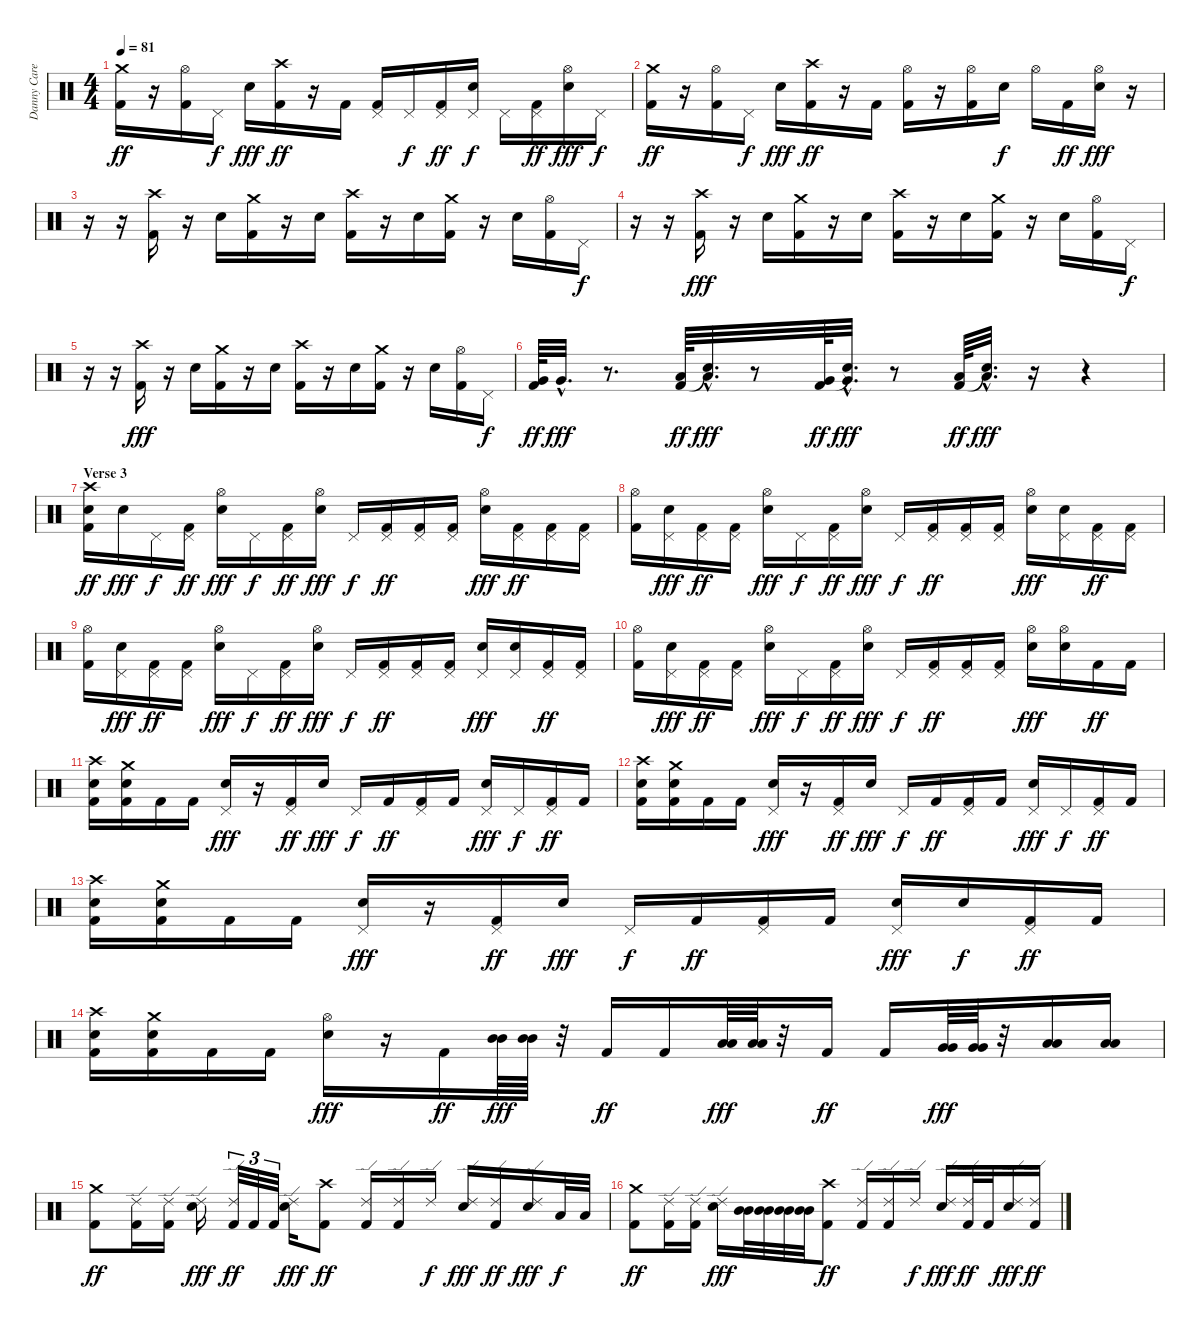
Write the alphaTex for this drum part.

\track ("Danny Carey" "Danny Care") {instrument percussion}
\staff {score}
\articulation defaults
\ts (4 4)
\tempo 81
\clef neutral
\ks c
("Crash medium (hit)" "Kick (hit) 2").16{dy ff} r.16 ("Hi-Hat (open)" "Kick (hit) 2").16 "Pedal Hi-Hat (hit)".16{dy f} "Electric Snare (hit)".16{dy fff} ("Crash high (hit)" "Kick (hit) 2").16{dy ff} r.16 "Kick (hit) 2".16 ("Pedal Hi-Hat (hit)" "Kick (hit) 2").16 "Pedal Hi-Hat (hit)".16{dy f} ("Pedal Hi-Hat (hit)" "Kick (hit) 2").16{dy ff} ("Pedal Hi-Hat (hit)" "Electric Snare (hit)").16{dy f} "Pedal Hi-Hat (hit)".16 ("Pedal Hi-Hat (hit)" "Kick (hit) 2").16{dy ff} ("Hi-Hat (open)" "Electric Snare (hit)").16{dy fff} "Pedal Hi-Hat (hit)".16{dy f} |
("Crash medium (hit)" "Kick (hit) 2").16{dy ff} r.16 ("Hi-Hat (open)" "Kick (hit) 2").16 "Pedal Hi-Hat (hit)".16{dy f} "Electric Snare (hit)".16{dy fff} ("Crash high (hit)" "Kick (hit) 2").16{dy ff} r.16 "Kick (hit) 2".16 ("Hi-Hat (open)" "Kick (hit) 2").16 r.16 ("Hi-Hat (open)" "Kick (hit) 2").16 "Electric Snare (hit)".16{dy f} "Hi-Hat (open)".16 "Kick (hit) 2".16{dy ff} ("Hi-Hat (open)" "Electric Snare (hit)").16{dy fff} r.16 |
r.16 r.16 ("Crash high (hit)" "Kick (hit) 2").16 r.16 "Electric Snare (hit)".16 ("Crash medium (hit)" "Kick (hit) 2").16 r.16 "Electric Snare (hit)".16 ("Crash high (hit)" "Kick (hit) 2").16 r.16 "Electric Snare (hit)".16 ("Crash medium (hit)" "Kick (hit) 2").16 r.16 "Electric Snare (hit)".16 ("Hi-Hat (open)" "Kick (hit) 2").16 "Pedal Hi-Hat (hit)".16{dy f} |
r.16 r.16 ("Crash high (hit)" "Kick (hit) 2").16{dy fff} r.16 "Electric Snare (hit)".16 ("Crash medium (hit)" "Kick (hit) 2").16 r.16 "Electric Snare (hit)".16 ("Crash high (hit)" "Kick (hit) 2").16 r.16 "Electric Snare (hit)".16 ("Crash medium (hit)" "Kick (hit) 2").16 r.16 "Electric Snare (hit)".16 ("Hi-Hat (open)" "Kick (hit) 2").16 "Pedal Hi-Hat (hit)".16{dy f} |
r.16 r.16 ("Crash high (hit)" "Kick (hit) 2").16{dy fff} r.16 "Electric Snare (hit)".16 ("Crash medium (hit)" "Kick (hit) 2").16 r.16 "Electric Snare (hit)".16 ("Crash high (hit)" "Kick (hit) 2").16 r.16 "Electric Snare (hit)".16 ("Crash medium (hit)" "Kick (hit) 2").16 r.16 "Electric Snare (hit)".16 ("Hi-Hat (open)" "Kick (hit) 2").16 "Pedal Hi-Hat (hit)".16{dy f} |
("Very Low Tom (hit)" "Kick (hit) 2").64{dy ff} "Very Low Tom (hit)"{hac}.32{d dy fff} r.8{d} ("Low Tom (hit)" "Kick (hit) 2").64{dy ff} ("Low Tom (hit)"{hac} "Snare (hit)"{hac t}).32{d dy fff} r.8 ("Very Low Tom (hit)" "Kick (hit) 2").64{dy ff} ("Very Low Tom (hit)"{hac} "Snare (hit)"{hac t}).32{d dy fff} r.8 ("Low Floor Tom (hit)" "Kick (hit) 2").64{dy ff} ("Low Floor Tom (hit)"{hac} "Snare (hit)"{hac t}).32{d dy fff} r.16 r.4 |
\section ("" "Verse 3")
("Crash high (hit)" "Electric Snare (hit)" "Kick (hit) 2").16{dy ff} "Electric Snare (hit)".16{dy fff} "Pedal Hi-Hat (hit)".16{dy f} ("Pedal Hi-Hat (hit)" "Kick (hit) 2").16{dy ff} ("Hi-Hat (open)" "Electric Snare (hit)").16{dy fff} "Pedal Hi-Hat (hit)".16{dy f} ("Pedal Hi-Hat (hit)" "Kick (hit) 2").16{dy ff} ("Hi-Hat (open)" "Electric Snare (hit)").16{dy fff} "Pedal Hi-Hat (hit)".16{dy f} ("Pedal Hi-Hat (hit)" "Kick (hit) 2").16{dy ff} ("Pedal Hi-Hat (hit)" "Kick (hit) 2").16 ("Pedal Hi-Hat (hit)" "Kick (hit) 2").16 ("Hi-Hat (open)" "Electric Snare (hit)").16{dy fff} ("Pedal Hi-Hat (hit)" "Kick (hit) 2").16{dy ff} ("Pedal Hi-Hat (hit)" "Kick (hit) 2").16 ("Pedal Hi-Hat (hit)" "Kick (hit) 2").16 |
("Hi-Hat (open)" "Kick (hit) 2").16 ("Pedal Hi-Hat (hit)" "Electric Snare (hit)").16{dy fff} ("Pedal Hi-Hat (hit)" "Kick (hit) 2").16{dy ff} ("Pedal Hi-Hat (hit)" "Kick (hit) 2").16 ("Hi-Hat (open)" "Electric Snare (hit)").16{dy fff} "Pedal Hi-Hat (hit)".16{dy f} ("Pedal Hi-Hat (hit)" "Kick (hit) 2").16{dy ff} ("Hi-Hat (open)" "Electric Snare (hit)").16{dy fff} "Pedal Hi-Hat (hit)".16{dy f} ("Pedal Hi-Hat (hit)" "Kick (hit) 2").16{dy ff} ("Pedal Hi-Hat (hit)" "Kick (hit) 2").16 ("Pedal Hi-Hat (hit)" "Kick (hit) 2").16 ("Hi-Hat (open)" "Electric Snare (hit)").16{dy fff} ("Pedal Hi-Hat (hit)" "Electric Snare (hit)").16 ("Pedal Hi-Hat (hit)" "Kick (hit) 2").16{dy ff} ("Pedal Hi-Hat (hit)" "Kick (hit) 2").16 |
("Hi-Hat (open)" "Kick (hit) 2").16 ("Pedal Hi-Hat (hit)" "Electric Snare (hit)").16{dy fff} ("Pedal Hi-Hat (hit)" "Kick (hit) 2").16{dy ff} ("Pedal Hi-Hat (hit)" "Kick (hit) 2").16 ("Hi-Hat (open)" "Electric Snare (hit)").16{dy fff} "Pedal Hi-Hat (hit)".16{dy f} ("Pedal Hi-Hat (hit)" "Kick (hit) 2").16{dy ff} ("Hi-Hat (open)" "Electric Snare (hit)").16{dy fff} "Pedal Hi-Hat (hit)".16{dy f} ("Pedal Hi-Hat (hit)" "Kick (hit) 2").16{dy ff} ("Pedal Hi-Hat (hit)" "Kick (hit) 2").16 ("Pedal Hi-Hat (hit)" "Kick (hit) 2").16 ("Pedal Hi-Hat (hit)" "Electric Snare (hit)").16{dy fff} ("Pedal Hi-Hat (hit)" "Electric Snare (hit)").16 ("Pedal Hi-Hat (hit)" "Kick (hit) 2").16{dy ff} ("Pedal Hi-Hat (hit)" "Kick (hit) 2").16 |
("Hi-Hat (open)" "Kick (hit) 2").16 ("Pedal Hi-Hat (hit)" "Electric Snare (hit)").16{dy fff} ("Pedal Hi-Hat (hit)" "Kick (hit) 2").16{dy ff} ("Pedal Hi-Hat (hit)" "Kick (hit) 2").16 ("Hi-Hat (open)" "Electric Snare (hit)").16{dy fff} "Pedal Hi-Hat (hit)".16{dy f} ("Pedal Hi-Hat (hit)" "Kick (hit) 2").16{dy ff} ("Hi-Hat (open)" "Electric Snare (hit)").16{dy fff} "Pedal Hi-Hat (hit)".16{dy f} ("Pedal Hi-Hat (hit)" "Kick (hit) 2").16{dy ff} ("Pedal Hi-Hat (hit)" "Kick (hit) 2").16 ("Pedal Hi-Hat (hit)" "Kick (hit) 2").16 ("Hi-Hat (open)" "Electric Snare (hit)").16{dy fff} ("Hi-Hat (open)" "Electric Snare (hit)").16 "Kick (hit) 2".16{dy ff} "Kick (hit) 2".16 |
("Crash high (hit)" "Electric Snare (hit)" "Kick (hit) 2").16 ("Crash medium (hit)" "Electric Snare (hit)" "Kick (hit) 2").16 "Kick (hit) 2".16 "Kick (hit) 2".16 ("Pedal Hi-Hat (hit)" "Electric Snare (hit)").16{dy fff} r.16 ("Pedal Hi-Hat (hit)" "Kick (hit) 2").16{dy ff} "Electric Snare (hit)".16{dy fff} "Pedal Hi-Hat (hit)".16{dy f} "Kick (hit) 2".16{dy ff} ("Pedal Hi-Hat (hit)" "Kick (hit) 2").16 "Kick (hit) 2".16 ("Pedal Hi-Hat (hit)" "Electric Snare (hit)").16{dy fff} "Pedal Hi-Hat (hit)".16{dy f} ("Pedal Hi-Hat (hit)" "Kick (hit) 2").16{dy ff} "Kick (hit) 2".16 |
("Crash high (hit)" "Electric Snare (hit)" "Kick (hit) 2").16 ("Crash medium (hit)" "Electric Snare (hit)" "Kick (hit) 2").16 "Kick (hit) 2".16 "Kick (hit) 2".16 ("Pedal Hi-Hat (hit)" "Electric Snare (hit)").16{dy fff} r.16 ("Pedal Hi-Hat (hit)" "Kick (hit) 2").16{dy ff} "Electric Snare (hit)".16{dy fff} "Pedal Hi-Hat (hit)".16{dy f} "Kick (hit) 2".16{dy ff} ("Pedal Hi-Hat (hit)" "Kick (hit) 2").16 "Kick (hit) 2".16 ("Pedal Hi-Hat (hit)" "Electric Snare (hit)").16{dy fff} "Pedal Hi-Hat (hit)".16{dy f} ("Pedal Hi-Hat (hit)" "Kick (hit) 2").16{dy ff} "Kick (hit) 2".16 |
("Crash high (hit)" "Electric Snare (hit)" "Kick (hit) 2").16 ("Crash medium (hit)" "Electric Snare (hit)" "Kick (hit) 2").16 "Kick (hit) 2".16 "Kick (hit) 2".16 ("Pedal Hi-Hat (hit)" "Electric Snare (hit)").16{dy fff} r.16 ("Pedal Hi-Hat (hit)" "Kick (hit) 2").16{dy ff} "Electric Snare (hit)".16{dy fff} "Pedal Hi-Hat (hit)".16{dy f} "Kick (hit) 2".16{dy ff} ("Pedal Hi-Hat (hit)" "Kick (hit) 2").16 "Kick (hit) 2".16 ("Pedal Hi-Hat (hit)" "Electric Snare (hit)").16{dy fff} "Electric Snare (hit)".16{dy f} ("Pedal Hi-Hat (hit)" "Kick (hit) 2").16{dy ff} "Kick (hit) 2".16 |
("Crash high (hit)" "Electric Snare (hit)" "Kick (hit) 2").16 ("Crash medium (hit)" "Electric Snare (hit)" "Kick (hit) 2").16 "Kick (hit) 2".16 "Kick (hit) 2".16 ("Hi-Hat (open)" "Electric Snare (hit)").16{dy fff} r.16 "Kick (hit) 2".16{dy ff} ("Mid Tom (hit)" "Mid Tom (hit)").64{dy fff} ("Mid Tom (hit)" "Mid Tom (hit)").64 r.32 "Kick (hit) 2".16{dy ff} "Kick (hit) 2".16 ("Low Tom (hit)" "Low Tom (hit)").64{dy fff} ("Low Tom (hit)" "Low Tom (hit)").64 r.32 "Kick (hit) 2".16{dy ff} "Kick (hit) 2".16 ("Very Low Tom (hit)" "Very Low Tom (hit)").64{dy fff} ("Very Low Tom (hit)" "Very Low Tom (hit)").64 r.32 ("Low Floor Tom (hit)" "Low Floor Tom (hit)").16 ("Low Floor Tom (hit)" "Low Floor Tom (hit)").16 |
("Crash medium (hit)" "Kick (hit) 2").8{dy ff} ("Ride (edge) 2" "Kick (hit) 2").16 ("Ride (edge) 2" "Kick (hit) 2").16 ("Ride (edge) 2" "Electric Snare (hit)").16{dy fff} ("Ride (edge) 2" "Kick (hit) 2").32{tu (3 2) dy ff} "Kick (hit) 2".32{tu (3 2)} "Kick (hit) 2".32{tu (3 2)} ("Ride (edge) 2" "Electric Snare (hit)").16{dy fff} ("Crash high (hit)" "Kick (hit) 2").8{dy ff} ("Ride (edge) 2" "Kick (hit) 2").16 ("Ride (edge) 2" "Kick (hit) 2").16 "Ride (edge) 2".16{dy f} ("Ride (edge) 2" "Electric Snare (hit)").16{dy fff} ("Ride (edge) 2" "Kick (hit) 2").16{dy ff} ("Ride (edge) 2" "Electric Snare (hit)").16{dy fff} "Low Tom (hit)".32{dy f} "Low Tom (hit)".32 |
("Crash medium (hit)" "Kick (hit) 2").8{dy ff} ("Ride (edge) 2" "Kick (hit) 2").16 ("Ride (edge) 2" "Kick (hit) 2").16 ("Ride (edge) 2" "Electric Snare (hit)").16{dy fff} ("Mid Tom (hit)" "Mid Tom (hit)").32 ("Mid Tom (hit)" "Mid Tom (hit)").32 ("Mid Tom (hit)" "Mid Tom (hit)").32 ("Mid Tom (hit)" "Mid Tom (hit)").32 ("Crash high (hit)" "Kick (hit) 2").8{dy ff} ("Ride (edge) 2" "Kick (hit) 2").16 ("Ride (edge) 2" "Kick (hit) 2").16 "Ride (edge) 2".16{dy f} ("Ride (edge) 2" "Electric Snare (hit)").16{dy fff} ("Ride (edge) 2" "Kick (hit) 2").32{dy ff} "Kick (hit) 2".32 ("Ride (edge) 2" "Electric Snare (hit)").16{dy fff} ("Ride (edge) 2" "Kick (hit) 2").16{dy ff}
